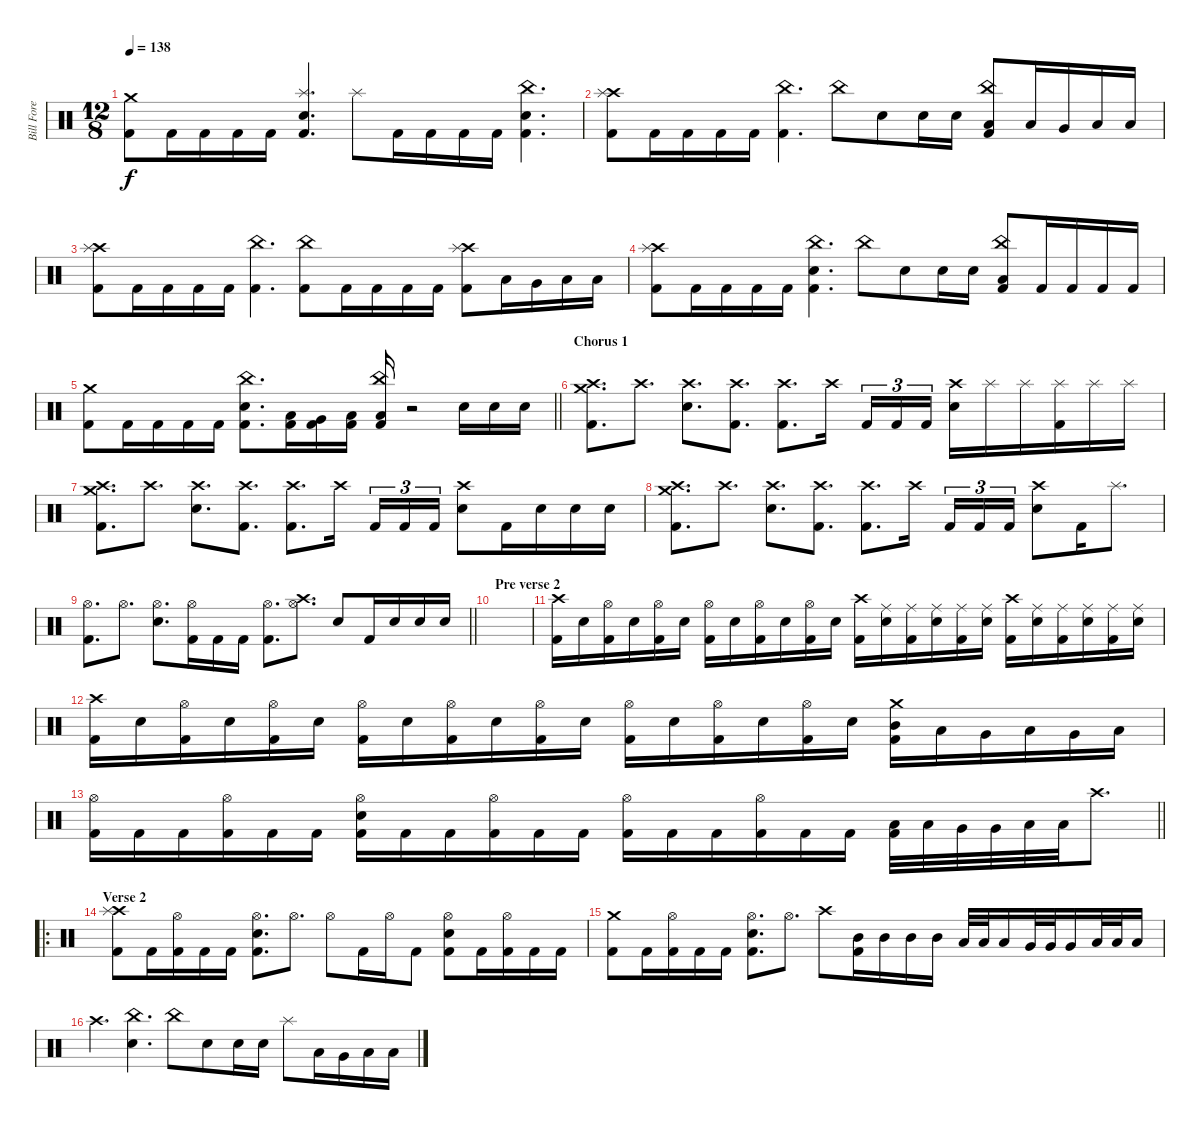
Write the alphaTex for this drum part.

\track ("Bill Fore" "Bill Fore") {instrument percussion}
\staff {score}
\articulation defaults
\ts (12 8)
\tempo 138
\clef neutral
\ks c
("Crash medium (hit)" "Kick (hit) 2").8{dy f} "Kick (hit) 2".16 "Kick (hit) 2".16 "Kick (hit) 2".16 "Kick (hit) 2".16 ("Splash (hit)" "Electric Snare (hit)" "Kick (hit) 2").4{d} "Splash (hit)".8 "Kick (hit) 2".16 "Kick (hit) 2".16 "Kick (hit) 2".16 "Kick (hit) 2".16 ("China (hit)" "Electric Snare (hit)" "Kick (hit) 2").4{d} |
("Crash high (hit)" "Splash (hit)" "Kick (hit) 2").8 "Kick (hit) 2".16 "Kick (hit) 2".16 "Kick (hit) 2".16 "Kick (hit) 2".16 ("China (hit)" "Kick (hit) 2").4{d} "China (hit)".8 "Electric Snare (hit)".8 "Electric Snare (hit)".16 "Electric Snare (hit)".16 ("China (hit)" "Low Floor Tom (hit)" "Kick (hit) 2").8 "Low Tom (hit)".16 "Very Low Tom (hit)".16 "Low Floor Tom (hit)".16 "Low Floor Tom (hit)".16 |
("Crash high (hit)" "Splash (hit)" "Kick (hit) 2").8 "Kick (hit) 2".16 "Kick (hit) 2".16 "Kick (hit) 2".16 "Kick (hit) 2".16 ("China (hit)" "Kick (hit) 2").4{d} ("China (hit)" "Kick (hit) 2").8 "Kick (hit) 2".16 "Kick (hit) 2".16 "Kick (hit) 2".16 "Kick (hit) 2".16 ("Crash high (hit)" "Splash (hit)" "Kick (hit) 2").8 "Low Tom (hit)".16 "Very Low Tom (hit)".16 "Low Floor Tom (hit)".16 "Low Floor Tom (hit)".16 |
("Crash high (hit)" "Splash (hit)" "Kick (hit) 2").8 "Kick (hit) 2".16 "Kick (hit) 2".16 "Kick (hit) 2".16 "Kick (hit) 2".16 ("China (hit)" "Electric Snare (hit)" "Kick (hit) 2").4{d} "China (hit)".8 "Electric Snare (hit)".8 "Electric Snare (hit)".16 "Electric Snare (hit)".16 ("China (hit)" "Low Floor Tom (hit)" "Kick (hit) 2").8 "Kick (hit) 2".16 "Kick (hit) 2".16 "Kick (hit) 2".16 "Kick (hit) 2".16 |
\barLineRight lightlight
("Crash medium (hit)" "Kick (hit) 2").8 "Kick (hit) 2".16 "Kick (hit) 2".16 "Kick (hit) 2".16 "Kick (hit) 2".16 ("China (hit)" "Electric Snare (hit)" "Kick (hit) 2").8{d} ("Low Tom (hit)" "Kick (hit) 2").16 ("Very Low Tom (hit)" "Kick (hit) 2").16 ("Low Floor Tom (hit)" "Kick (hit) 2").16 ("China (hit)" "Low Floor Tom (hit)" "Kick (hit) 2").16 r.2 "Electric Snare (hit)".16 "Electric Snare (hit)".16 "Electric Snare (hit)".16 |
\section ("" "Chorus 1")
("Crash high (hit)" "Crash medium (hit)" "Kick (hit) 2").8{d} "Crash high (hit)".8{d} ("Crash high (hit)" "Electric Snare (hit)").8{d} ("Crash high (hit)" "Kick (hit) 2").8{d} ("Crash high (hit)" "Kick (hit) 2").8{d} "Crash high (hit)".16{beam splitsecondary} "Kick (hit) 2".16{tu (3 2)} "Kick (hit) 2".16{tu (3 2)} "Kick (hit) 2".16{tu (3 2)} ("Crash high (hit)" "Electric Snare (hit)").16 "Splash (hit)".16 "Splash (hit)".16 ("Splash (hit)" "Kick (hit) 2").16 "Splash (hit)".16 "Splash (hit)".16 |
("Crash high (hit)" "Crash medium (hit)" "Kick (hit) 2").8{d} "Crash high (hit)".8{d} ("Crash high (hit)" "Electric Snare (hit)").8{d} ("Crash high (hit)" "Kick (hit) 2").8{d} ("Crash high (hit)" "Kick (hit) 2").8{d} "Crash high (hit)".16{beam splitsecondary} "Kick (hit) 2".16{tu (3 2)} "Kick (hit) 2".16{tu (3 2)} "Kick (hit) 2".16{tu (3 2)} ("Crash high (hit)" "Electric Snare (hit)").8 "Kick (hit) 2".16 "Electric Snare (hit)".16 "Electric Snare (hit)".16 "Electric Snare (hit)".16 |
("Crash high (hit)" "Crash medium (hit)" "Kick (hit) 2").8{d} "Crash high (hit)".8{d} ("Crash high (hit)" "Electric Snare (hit)").8{d} ("Crash high (hit)" "Kick (hit) 2").8{d} ("Crash high (hit)" "Kick (hit) 2").8{d} "Crash high (hit)".16{beam splitsecondary} "Kick (hit) 2".16{tu (3 2)} "Kick (hit) 2".16{tu (3 2)} "Kick (hit) 2".16{tu (3 2)} ("Crash high (hit)" "Electric Snare (hit)").8 "Kick (hit) 2".16 "Splash (hit)".8{d} |
\barLineRight lightlight
("Hi-Hat (open)" "Kick (hit) 2").8{d} "Hi-Hat (open)".8{d} ("Hi-Hat (open)" "Electric Snare (hit)").8{d} ("Hi-Hat (open)" "Kick (hit) 2").16 "Kick (hit) 2".16 "Kick (hit) 2".16 ("Hi-Hat (open)" "Kick (hit) 2").8{d} ("Crash high (hit)" "Hi-Hat (open)").8{d} "Electric Snare (hit)".8 "Kick (hit) 2".16 "Electric Snare (hit)".16 "Electric Snare (hit)".16 "Electric Snare (hit)".16 |
\section ("" "Pre verse 2")
|
("Crash high (hit)" "Kick (hit) 2").16 "Electric Snare (hit)".16 ("Hi-Hat (open)" "Kick (hit) 2").16 "Electric Snare (hit)".16 ("Hi-Hat (open)" "Kick (hit) 2").16 "Electric Snare (hit)".16 ("Hi-Hat (open)" "Kick (hit) 2").16 "Electric Snare (hit)".16 ("Hi-Hat (open)" "Kick (hit) 2").16 "Electric Snare (hit)".16 ("Hi-Hat (open)" "Kick (hit) 2").16 "Electric Snare (hit)".16 ("Crash high (hit)" "Kick (hit) 2").16 ("Ride (middle)" "Electric Snare (hit)").16 ("Ride (middle)" "Kick (hit) 2").16 ("Ride (middle)" "Electric Snare (hit)").16 ("Ride (middle)" "Kick (hit) 2").16 ("Ride (middle)" "Electric Snare (hit)").16 ("Crash high (hit)" "Kick (hit) 2").16 ("Ride (middle)" "Electric Snare (hit)").16 ("Ride (middle)" "Kick (hit) 2").16 ("Ride (middle)" "Electric Snare (hit)").16 ("Ride (middle)" "Kick (hit) 2").16 ("Ride (middle)" "Electric Snare (hit)").16 |
("Crash high (hit)" "Kick (hit) 2").16 "Electric Snare (hit)".16 ("Hi-Hat (open)" "Kick (hit) 2").16 "Electric Snare (hit)".16 ("Hi-Hat (open)" "Kick (hit) 2").16 "Electric Snare (hit)".16 ("Hi-Hat (open)" "Kick (hit) 2").16 "Electric Snare (hit)".16 ("Hi-Hat (open)" "Kick (hit) 2").16 "Electric Snare (hit)".16 ("Hi-Hat (open)" "Kick (hit) 2").16 "Electric Snare (hit)".16 ("Hi-Hat (open)" "Kick (hit) 2").16 "Electric Snare (hit)".16 ("Hi-Hat (open)" "Kick (hit) 2").16 "Electric Snare (hit)".16 ("Hi-Hat (open)" "Kick (hit) 2").16 "Electric Snare (hit)".16 ("Crash medium (hit)" "Mid Tom (hit)" "Kick (hit) 2").16 "Low Tom (hit)".16 "Very Low Tom (hit)".16 "Low Tom (hit)".16 "Very Low Tom (hit)".16 "Low Floor Tom (hit)".16 |
\barLineRight lightlight
("Hi-Hat (open)" "Kick (hit) 2").16 "Kick (hit) 2".16 "Kick (hit) 2".16 ("Hi-Hat (open)" "Kick (hit) 2").16 "Kick (hit) 2".16 "Kick (hit) 2".16 ("Hi-Hat (open)" "Electric Snare (hit)" "Kick (hit) 2").16 "Kick (hit) 2".16 "Kick (hit) 2".16 ("Hi-Hat (open)" "Kick (hit) 2").16 "Kick (hit) 2".16 "Kick (hit) 2".16 ("Hi-Hat (open)" "Kick (hit) 2").16 "Kick (hit) 2".16 "Kick (hit) 2".16 ("Hi-Hat (open)" "Kick (hit) 2").16 "Kick (hit) 2".16 "Kick (hit) 2".16 ("Low Tom (hit)" "Kick (hit) 2").32 "Low Tom (hit)".32 "Very Low Tom (hit)".32 "Very Low Tom (hit)".32 "Low Floor Tom (hit)".32 "Low Floor Tom (hit)".32 "Crash high (hit)".8{d} |
\ro
\section ("" "Verse 2")
("Crash high (hit)" "Splash (hit)" "Kick (hit) 2").8 "Kick (hit) 2".16 ("Hi-Hat (open)" "Kick (hit) 2").16 "Kick (hit) 2".16 "Kick (hit) 2".16 ("Hi-Hat (open)" "Electric Snare (hit)" "Kick (hit) 2").8{d} "Hi-Hat (open)".8{d} "Hi-Hat (open)".8 "Kick (hit) 2".16 "Hi-Hat (open)".16 "Kick (hit) 2".8 ("Hi-Hat (open)" "Electric Snare (hit)" "Kick (hit) 2").8 "Kick (hit) 2".16 ("Hi-Hat (open)" "Kick (hit) 2").16 "Kick (hit) 2".16 "Kick (hit) 2".16 |
("Crash medium (hit)" "Kick (hit) 2").8 "Kick (hit) 2".16 ("Hi-Hat (open)" "Kick (hit) 2").16 "Kick (hit) 2".16 "Kick (hit) 2".16 ("Hi-Hat (open)" "Electric Snare (hit)" "Kick (hit) 2").8{d} "Hi-Hat (open)".8{d} "Crash high (hit)".8 ("Mid Tom (hit)" "Kick (hit) 2").16 "Mid Tom (hit)".16 "Mid Tom (hit)".16 "Mid Tom (hit)".16 "Low Tom (hit)".32 "Low Tom (hit)".32 "Low Tom (hit)".16 "Very Low Tom (hit)".32 "Very Low Tom (hit)".32 "Very Low Tom (hit)".16 "Low Floor Tom (hit)".32 "Low Floor Tom (hit)".32 "Low Floor Tom (hit)".16 |
"Crash high (hit)".4{d} ("China (hit)" "Electric Snare (hit)").4{d} "China (hit)".8 "Electric Snare (hit)".8 "Electric Snare (hit)".16 "Electric Snare (hit)".16 "Splash (hit)".8 "Low Tom (hit)".16 "Very Low Tom (hit)".16 "Low Floor Tom (hit)".16 "Low Floor Tom (hit)".16
